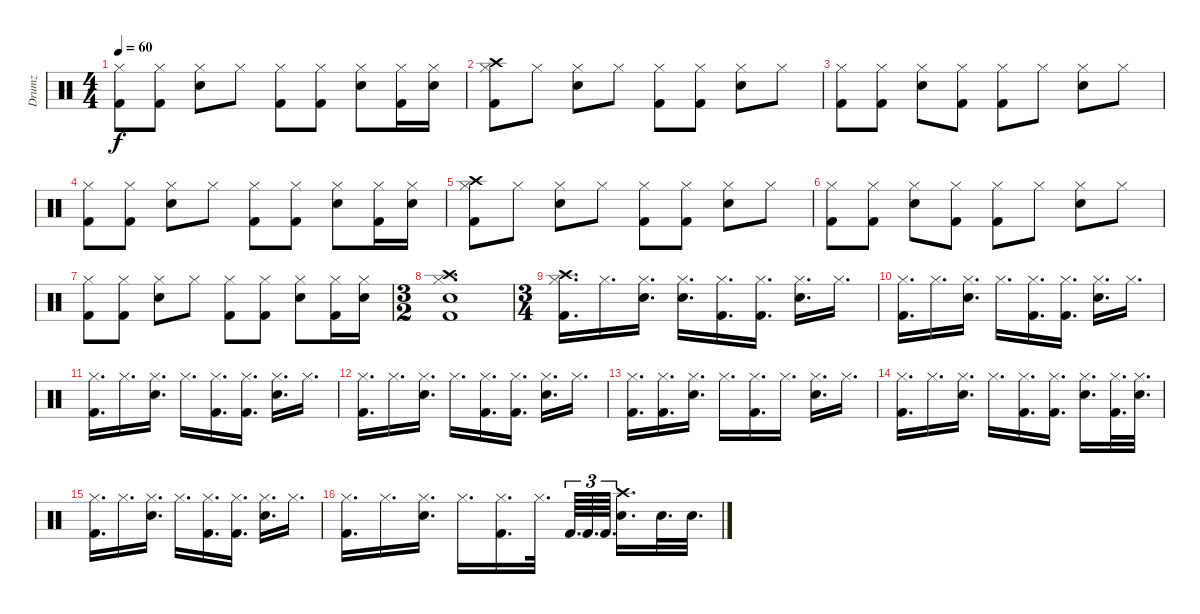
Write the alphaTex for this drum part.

\track ("Drumz" "Drumz") {instrument percussion}
\staff {score}
\articulation defaults
\ts (4 4)
\tempo 60
\clef neutral
\ks c
("Hi-Hat (closed)" "Kick (hit) 2").8{dy f} ("Hi-Hat (closed)" "Kick (hit) 2").8 ("Hi-Hat (closed)" "Snare (hit) 2").8 "Hi-Hat (closed)".8 ("Hi-Hat (closed)" "Kick (hit) 2").8 ("Hi-Hat (closed)" "Kick (hit) 2").8 ("Hi-Hat (closed)" "Snare (hit) 2").8 ("Hi-Hat (closed)" "Kick (hit) 2").16 ("Hi-Hat (closed)" "Snare (hit) 2").16 |
("Hi-Hat (closed)" "Crash high (hit)" "Kick (hit) 2").8 "Hi-Hat (closed)".8 ("Hi-Hat (closed)" "Snare (hit) 2").8 "Hi-Hat (closed)".8 ("Hi-Hat (closed)" "Kick (hit) 2").8 ("Hi-Hat (closed)" "Kick (hit) 2").8 ("Hi-Hat (closed)" "Snare (hit) 2").8 "Hi-Hat (closed)".8 |
("Hi-Hat (closed)" "Kick (hit) 2").8 ("Hi-Hat (closed)" "Kick (hit) 2").8 ("Hi-Hat (closed)" "Snare (hit) 2").8 ("Hi-Hat (closed)" "Kick (hit) 2").8 ("Hi-Hat (closed)" "Kick (hit) 2").8 "Hi-Hat (closed)".8 ("Hi-Hat (closed)" "Snare (hit) 2").8 "Hi-Hat (closed)".8 |
("Hi-Hat (closed)" "Kick (hit) 2").8 ("Hi-Hat (closed)" "Kick (hit) 2").8 ("Hi-Hat (closed)" "Snare (hit) 2").8 "Hi-Hat (closed)".8 ("Hi-Hat (closed)" "Kick (hit) 2").8 ("Hi-Hat (closed)" "Kick (hit) 2").8 ("Hi-Hat (closed)" "Snare (hit) 2").8 ("Hi-Hat (closed)" "Kick (hit) 2").16 ("Hi-Hat (closed)" "Snare (hit) 2").16 |
("Hi-Hat (closed)" "Crash high (hit)" "Kick (hit) 2").8 "Hi-Hat (closed)".8 ("Hi-Hat (closed)" "Snare (hit) 2").8 "Hi-Hat (closed)".8 ("Hi-Hat (closed)" "Kick (hit) 2").8 ("Hi-Hat (closed)" "Kick (hit) 2").8 ("Hi-Hat (closed)" "Snare (hit) 2").8 "Hi-Hat (closed)".8 |
("Hi-Hat (closed)" "Kick (hit) 2").8 ("Hi-Hat (closed)" "Kick (hit) 2").8 ("Hi-Hat (closed)" "Snare (hit) 2").8 ("Hi-Hat (closed)" "Kick (hit) 2").8 ("Hi-Hat (closed)" "Kick (hit) 2").8 "Hi-Hat (closed)".8 ("Hi-Hat (closed)" "Snare (hit) 2").8 "Hi-Hat (closed)".8 |
("Hi-Hat (closed)" "Kick (hit) 2").8 ("Hi-Hat (closed)" "Kick (hit) 2").8 ("Hi-Hat (closed)" "Snare (hit) 2").8 "Hi-Hat (closed)".8 ("Hi-Hat (closed)" "Kick (hit) 2").8 ("Hi-Hat (closed)" "Kick (hit) 2").8 ("Hi-Hat (closed)" "Snare (hit) 2").8 ("Hi-Hat (closed)" "Kick (hit) 2").16 ("Hi-Hat (closed)" "Snare (hit) 2").16 |
\ts (3 2)
("Hi-Hat (closed)" "Crash high (hit)" "Snare (hit) 2" "Kick (hit) 2").1{d} |
\ts (3 4)
("Hi-Hat (closed)" "Crash high (hit)" "Kick (hit) 2").16{d} "Hi-Hat (closed)".16{d} ("Hi-Hat (closed)" "Snare (hit) 2").16{d} ("Hi-Hat (closed)" "Snare (hit) 2").16{d} ("Hi-Hat (closed)" "Kick (hit) 2").16{d} ("Hi-Hat (closed)" "Kick (hit) 2").16{d} ("Hi-Hat (closed)" "Snare (hit) 2").16{d} "Hi-Hat (closed)".16{d} |
("Hi-Hat (closed)" "Kick (hit) 2").16{d} "Hi-Hat (closed)".16{d} ("Hi-Hat (closed)" "Snare (hit) 2").16{d} "Hi-Hat (closed)".16{d} ("Hi-Hat (closed)" "Kick (hit) 2").16{d} ("Hi-Hat (closed)" "Kick (hit) 2").16{d} ("Hi-Hat (closed)" "Snare (hit) 2").16{d} "Hi-Hat (closed)".16{d} |
("Hi-Hat (closed)" "Kick (hit) 2").16{d} "Hi-Hat (closed)".16{d} ("Hi-Hat (closed)" "Snare (hit) 2").16{d} "Hi-Hat (closed)".16{d} ("Hi-Hat (closed)" "Kick (hit) 2").16{d} ("Hi-Hat (closed)" "Kick (hit) 2").16{d} ("Hi-Hat (closed)" "Snare (hit) 2").16{d} "Hi-Hat (closed)".16{d} |
("Hi-Hat (closed)" "Kick (hit) 2").16{d} "Hi-Hat (closed)".16{d} ("Hi-Hat (closed)" "Snare (hit) 2").16{d} "Hi-Hat (closed)".16{d} ("Hi-Hat (closed)" "Kick (hit) 2").16{d} ("Hi-Hat (closed)" "Kick (hit) 2").16{d} ("Hi-Hat (closed)" "Snare (hit) 2").16{d} "Hi-Hat (closed)".16{d} |
("Hi-Hat (closed)" "Kick (hit) 2").16{d} ("Hi-Hat (closed)" "Kick (hit) 2").16{d} ("Hi-Hat (closed)" "Snare (hit) 2").16{d} "Hi-Hat (closed)".16{d} ("Hi-Hat (closed)" "Kick (hit) 2").16{d} "Hi-Hat (closed)".16{d} ("Hi-Hat (closed)" "Snare (hit) 2").16{d} "Hi-Hat (closed)".16{d} |
("Hi-Hat (closed)" "Kick (hit) 2").16{d} "Hi-Hat (closed)".16{d} ("Hi-Hat (closed)" "Snare (hit) 2").16{d} "Hi-Hat (closed)".16{d} ("Hi-Hat (closed)" "Kick (hit) 2").16{d} ("Hi-Hat (closed)" "Kick (hit) 2").16{d} ("Hi-Hat (closed)" "Snare (hit) 2").16{d} ("Hi-Hat (closed)" "Kick (hit) 2").32{d} ("Hi-Hat (closed)" "Snare (hit) 2").32{d} |
("Hi-Hat (closed)" "Kick (hit) 2").16{d} "Hi-Hat (closed)".16{d} ("Hi-Hat (closed)" "Snare (hit) 2").16{d} "Hi-Hat (closed)".16{d} ("Hi-Hat (closed)" "Kick (hit) 2").16{d} ("Hi-Hat (closed)" "Kick (hit) 2").16{d} ("Hi-Hat (closed)" "Snare (hit) 2").16{d} "Hi-Hat (closed)".16{d} |
("Hi-Hat (closed)" "Kick (hit) 2").16{d} "Hi-Hat (closed)".16{d} ("Hi-Hat (closed)" "Snare (hit) 2").16{d} "Hi-Hat (closed)".16{d} ("Hi-Hat (closed)" "Kick (hit) 2").16{d} "Hi-Hat (closed)".32{d} "Kick (hit) 2".64{d tu (3 2)} "Kick (hit) 2".64{d tu (3 2)} "Kick (hit) 2".64{d tu (3 2) beam splitsecondary} ("Crash high (hit)" "Snare (hit) 2").16{d} "Snare (hit) 2".32{d} "Snare (hit) 2".32{d}
